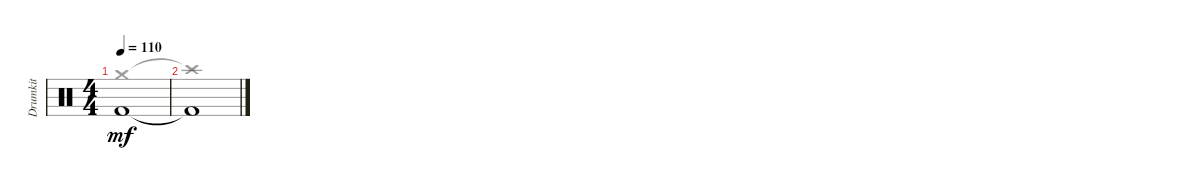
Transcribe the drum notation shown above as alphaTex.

\track ("Drumkit" "Drumkit") {instrument percussion}
\staff {score}
\articulation defaults
\voice
\ts (4 4)
\tempo 110
\clef neutral
\ks c "Kick (hit) 2".1{dy mf}
|
"Kick (hit) 2"{t}.1
\voice
\clef neutral
\ottava regular
\simile none
\ks c "Crash medium (hit)".1{dy mf}
|
"Crash high (hit)"{t}.1
